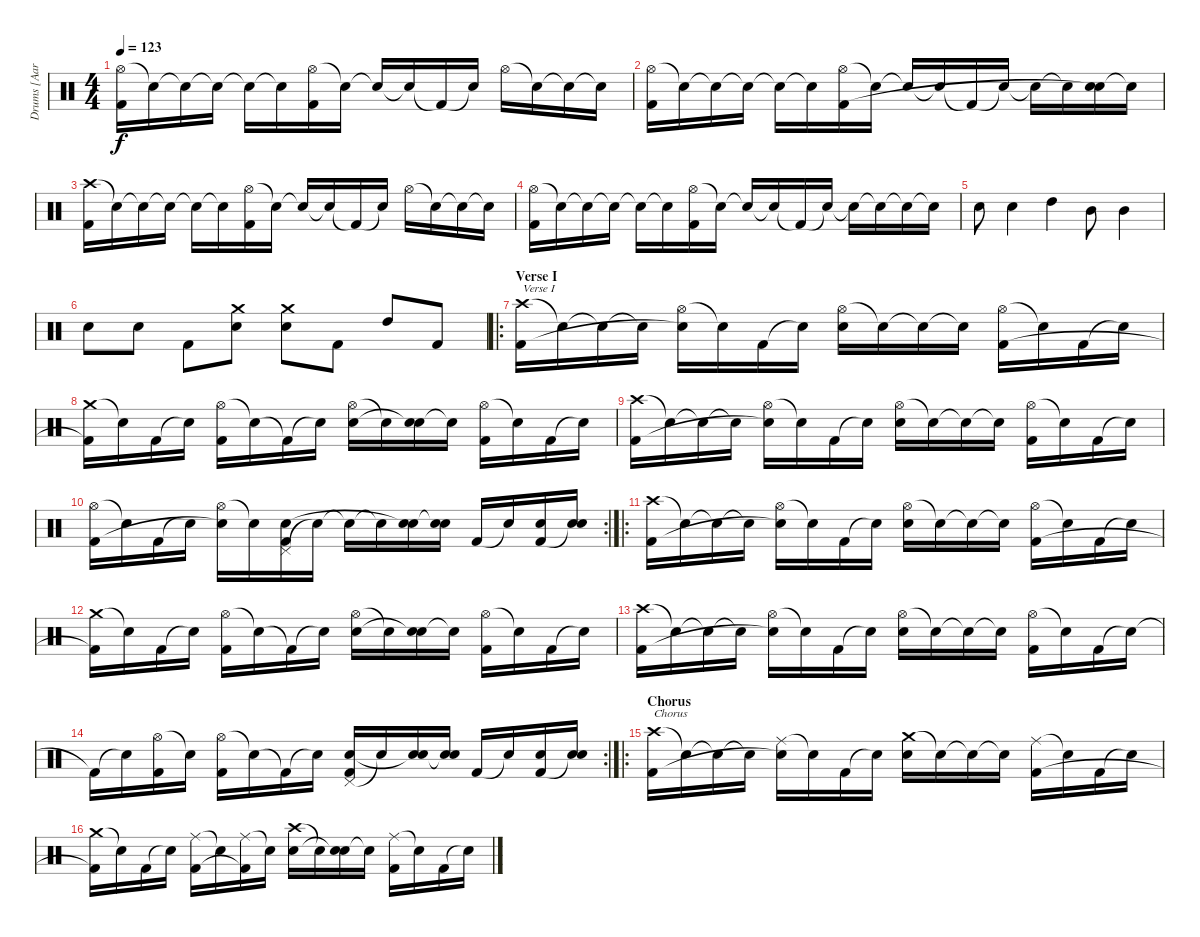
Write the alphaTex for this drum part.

\track ("Drums [Aaron Harris]" "Drums [Aar") {instrument percussion}
\staff {score}
\articulation defaults
\ts (4 4)
\tempo 123
\clef neutral
\ks c
("Hi-Hat (open)" "Kick (hit) 2").16{dy f} "Snare (hit)"{t}.16 "Snare (hit)"{t}.16 "Snare (hit)"{t}.16 "Snare (hit)"{t}.16 "Snare (hit)"{t}.16 ("Hi-Hat (open)" "Kick (hit) 2").16 "Snare (hit)"{t}.16 "Snare (hit)"{t}.16 "Snare (hit)"{t}.16 "Kick (hit) 2"{t}.16 "Snare (hit)"{t}.16 "Hi-Hat (open)".16 "Snare (hit)"{t}.16 "Snare (hit)"{t}.16 "Snare (hit)"{t}.16 |
("Hi-Hat (open)" "Kick (hit) 2").16 "Snare (hit)"{t}.16 "Snare (hit)"{t}.16 "Snare (hit)"{t}.16 "Snare (hit)"{t}.16 "Snare (hit)"{t}.16 ("Hi-Hat (open)" "Kick (hit) 2").16 "Snare (hit)"{t}.16 "Snare (hit)"{t}.16 "Snare (hit)"{t}.16 "Kick (hit) 2"{t}.16 "Snare (hit)"{t}.16 "Snare (hit)"{t}.16 "Snare (hit)"{t}.16 ("Electric Snare (hit)" "Snare (hit)"{t}).16 "Snare (hit)"{t}.16 |
("Crash high (hit)" "Kick (hit) 2").16 "Snare (hit)"{t}.16 "Snare (hit)"{t}.16 "Snare (hit)"{t}.16 "Snare (hit)"{t}.16 "Snare (hit)"{t}.16 ("Hi-Hat (open)" "Kick (hit) 2").16 "Snare (hit)"{t}.16 "Snare (hit)"{t}.16 "Snare (hit)"{t}.16 "Kick (hit) 2"{t}.16 "Snare (hit)"{t}.16 "Hi-Hat (open)".16 "Snare (hit)"{t}.16 "Snare (hit)"{t}.16 "Snare (hit)"{t}.16 |
("Hi-Hat (open)" "Kick (hit) 2").16 "Snare (hit)"{t}.16 "Snare (hit)"{t}.16 "Snare (hit)"{t}.16 "Snare (hit)"{t}.16 "Snare (hit)"{t}.16 ("Hi-Hat (open)" "Kick (hit) 2").16 "Snare (hit)"{t}.16 "Snare (hit)"{t}.16 "Snare (hit)"{t}.16 "Kick (hit) 2"{t}.16 "Snare (hit)"{t}.16 "Snare (hit)"{t}.16 "Snare (hit)"{t}.16 "Snare (hit)"{t}.16 "Snare (hit)"{t}.16 |
"Electric Snare (hit)".8 "Electric Snare (hit)".4 "High Tom (hit)".4 "Mid Tom (hit)".8 "Mid Tom (hit)".4 |
"Electric Snare (hit)".8 "Electric Snare (hit)".8 "Kick (hit) 2".8 ("Crash medium (hit)" "Electric Snare (hit)").8 ("Crash medium (hit)" "Electric Snare (hit)").8 "Kick (hit) 2".8 "High Tom (hit)".8 "Kick (hit) 2".8 |
\ro
\section ("" "Verse I")
("Crash high (hit)" "Kick (hit) 2").16{txt "Verse I"} "Snare (hit)"{t}.16 "Snare (hit)"{t}.16 "Snare (hit)"{t}.16 ("Hi-Hat (open)" "Snare (hit)"{t}).16 "Snare (hit)"{t}.16 "Kick (hit) 2".16 "Snare (hit)"{t}.16 ("Hi-Hat (open)" "Electric Snare (hit)").16 "Snare (hit)"{t}.16 "Snare (hit)"{t}.16 "Snare (hit)"{t}.16 ("Hi-Hat (open)" "Kick (hit) 2").16 "Snare (hit)"{t}.16 "Kick (hit) 2".16 "Snare (hit)"{t}.16 |
("Crash medium (hit)" "Kick (hit) 2"{t}).16 "Snare (hit)"{t}.16 "Kick (hit) 2".16 "Snare (hit)"{t}.16 ("Hi-Hat (open)" "Kick (hit) 2").16 "Snare (hit)"{t}.16 "Kick (hit) 2"{t}.16 "Snare (hit)"{t}.16 ("Hi-Hat (open)" "Electric Snare (hit)").16 "Snare (hit)"{t}.16 ("Electric Snare (hit)" "Snare (hit)"{t}).16 "Snare (hit)"{t}.16 ("Hi-Hat (open)" "Kick (hit) 2").16 "Snare (hit)"{t}.16 "Kick (hit) 2".16 "Snare (hit)"{t}.16 |
("Crash high (hit)" "Kick (hit) 2").16 "Snare (hit)"{t}.16 "Snare (hit)"{t}.16 "Snare (hit)"{t}.16 ("Hi-Hat (open)" "Snare (hit)"{t}).16 "Snare (hit)"{t}.16 "Kick (hit) 2".16 "Snare (hit)"{t}.16 ("Hi-Hat (open)" "Electric Snare (hit)").16 "Snare (hit)"{t}.16 "Snare (hit)"{t}.16 "Snare (hit)"{t}.16 ("Hi-Hat (open)" "Kick (hit) 2").16 "Snare (hit)"{t}.16 "Kick (hit) 2".16 "Snare (hit)"{t}.16 |
\rc 2
("Hi-Hat (open)" "Kick (hit) 2").16 "Snare (hit)"{t}.16 "Kick (hit) 2".16 "Snare (hit)"{t}.16 ("Hi-Hat (open)" "Snare (hit)"{t}).16 "Snare (hit)"{t}.16 ("Pedal Hi-Hat (hit)" "Electric Snare (hit)" "Kick (hit) 2").16 "Snare (hit)"{t}.16 "Snare (hit)"{t}.16 "Snare (hit)"{t}.16 ("Electric Snare (hit)" "Snare (hit)"{t}).16 ("Electric Snare (hit)" "Snare (hit)"{t}).16 "Kick (hit) 2".16 "Snare (hit)"{t}.16 ("Electric Snare (hit)" "Kick (hit) 2").16 ("Electric Snare (hit)" "Snare (hit)"{t}).16 |
\ro
("Crash high (hit)" "Kick (hit) 2").16 "Snare (hit)"{t}.16 "Snare (hit)"{t}.16 "Snare (hit)"{t}.16 ("Hi-Hat (open)" "Snare (hit)"{t}).16 "Snare (hit)"{t}.16 "Kick (hit) 2".16 "Snare (hit)"{t}.16 ("Hi-Hat (open)" "Electric Snare (hit)").16 "Snare (hit)"{t}.16 "Snare (hit)"{t}.16 "Snare (hit)"{t}.16 ("Hi-Hat (open)" "Kick (hit) 2").16 "Snare (hit)"{t}.16 "Kick (hit) 2".16 "Snare (hit)"{t}.16 |
("Crash medium (hit)" "Kick (hit) 2"{t}).16 "Snare (hit)"{t}.16 "Kick (hit) 2".16 "Snare (hit)"{t}.16 ("Hi-Hat (open)" "Kick (hit) 2").16 "Snare (hit)"{t}.16 "Kick (hit) 2"{t}.16 "Snare (hit)"{t}.16 ("Hi-Hat (open)" "Electric Snare (hit)").16 "Snare (hit)"{t}.16 ("Electric Snare (hit)" "Snare (hit)"{t}).16 "Snare (hit)"{t}.16 ("Hi-Hat (open)" "Kick (hit) 2").16 "Snare (hit)"{t}.16 "Kick (hit) 2".16 "Snare (hit)"{t}.16 |
("Crash high (hit)" "Kick (hit) 2").16 "Snare (hit)"{t}.16 "Snare (hit)"{t}.16 "Snare (hit)"{t}.16 ("Hi-Hat (open)" "Snare (hit)"{t}).16 "Snare (hit)"{t}.16 "Kick (hit) 2".16 "Snare (hit)"{t}.16 ("Hi-Hat (open)" "Electric Snare (hit)").16 "Snare (hit)"{t}.16 "Snare (hit)"{t}.16 "Snare (hit)"{t}.16 ("Hi-Hat (open)" "Kick (hit) 2").16 "Snare (hit)"{t}.16 "Kick (hit) 2".16 "Snare (hit)"{t}.16 |
\rc 2 "Kick (hit) 2"{t}.16 "Snare (hit)"{t}.16
("Hi-Hat (open)" "Kick (hit) 2").16 "Snare (hit)"{t}.16 ("Hi-Hat (open)" "Kick (hit) 2").16 "Snare (hit)"{t}.16 "Kick (hit) 2"{t}.16 "Snare (hit)"{t}.16 ("Pedal Hi-Hat (hit)" "Electric Snare (hit)" "Kick (hit) 2").16 "Snare (hit)"{t}.16 ("Electric Snare (hit)" "Snare (hit)"{t}).16 ("Electric Snare (hit)" "Snare (hit)"{t}).16 "Kick (hit) 2".16 "Snare (hit)"{t}.16 ("Electric Snare (hit)" "Kick (hit) 2").16 ("Electric Snare (hit)" "Snare (hit)"{t}).16 |
\ro
\section ("" "Chorus")
("Crash high (hit)" "Kick (hit) 2").16{txt "Chorus"} "Snare (hit)"{t}.16 "Snare (hit)"{t}.16 "Snare (hit)"{t}.16 ("Ride (middle)" "Snare (hit)"{t}).16 "Snare (hit)"{t}.16 "Kick (hit) 2".16 "Snare (hit)"{t}.16 ("Crash medium (hit)" "Electric Snare (hit)").16 "Snare (hit)"{t}.16 "Snare (hit)"{t}.16 "Snare (hit)"{t}.16 ("Ride (middle)" "Kick (hit) 2").16 "Snare (hit)"{t}.16 "Kick (hit) 2".16 "Snare (hit)"{t}.16 |
("Crash medium (hit)" "Kick (hit) 2"{t}).16 "Snare (hit)"{t}.16 "Kick (hit) 2".16 "Snare (hit)"{t}.16 ("Ride (middle)" "Kick (hit) 2").16 "Snare (hit)"{t}.16 ("Ride (middle)" "Kick (hit) 2"{t}).16 "Snare (hit)"{t}.16 ("Crash high (hit)" "Electric Snare (hit)").16 "Snare (hit)"{t}.16 ("Electric Snare (hit)" "Snare (hit)"{t}).16 "Snare (hit)"{t}.16 ("Ride (middle)" "Kick (hit) 2").16 "Snare (hit)"{t}.16 "Kick (hit) 2".16 "Snare (hit)"{t}.16
